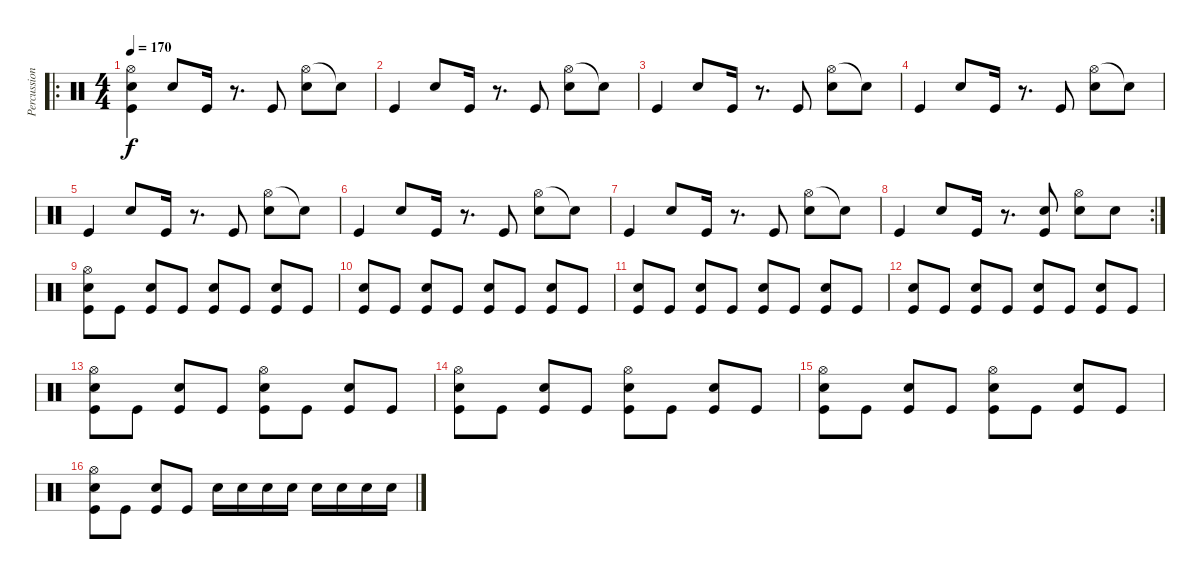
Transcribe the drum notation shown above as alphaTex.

\track ("Percussions" "Percussion") {instrument percussion}
\staff {score}
\articulation defaults
\ro
\ts (4 4)
\tempo 170
\clef neutral
\ks c
("Hi-Hat (open)" "Snare (hit) 2" "Kick (hit)").4{dy f} "Electric Snare (hit)".8 "Kick (hit)".16 r.8{d} "Kick (hit)".8 ("Hi-Hat (open)" "Electric Snare (hit)").8 "Snare (hit)"{t}.8 |
"Kick (hit)".4 "Electric Snare (hit)".8 "Kick (hit)".16 r.8{d} "Kick (hit)".8 ("Hi-Hat (open)" "Electric Snare (hit)").8 "Snare (hit)"{t}.8 |
"Kick (hit)".4 "Electric Snare (hit)".8 "Kick (hit)".16 r.8{d} "Kick (hit)".8 ("Hi-Hat (open)" "Electric Snare (hit)").8 "Snare (hit)"{t}.8 |
"Kick (hit)".4 "Electric Snare (hit)".8 "Kick (hit)".16 r.8{d} "Kick (hit)".8 ("Hi-Hat (open)" "Electric Snare (hit)").8 "Snare (hit)"{t}.8 |
"Kick (hit)".4 "Electric Snare (hit)".8 "Kick (hit)".16 r.8{d} "Kick (hit)".8 ("Hi-Hat (open)" "Electric Snare (hit)").8 "Snare (hit)"{t}.8 |
"Kick (hit)".4 "Electric Snare (hit)".8 "Kick (hit)".16 r.8{d} "Kick (hit)".8 ("Hi-Hat (open)" "Electric Snare (hit)").8 "Snare (hit)"{t}.8 |
"Kick (hit)".4 "Electric Snare (hit)".8 "Kick (hit)".16 r.8{d} "Kick (hit)".8 ("Hi-Hat (open)" "Electric Snare (hit)").8 "Snare (hit)"{t}.8 |
\rc 2 "Kick (hit)".4 "Electric Snare (hit)".8 "Kick (hit)".16
r.8{d} ("Snare (hit) 2" "Kick (hit)").8 ("Hi-Hat (open)" "Snare (hit) 2").8 "Snare (hit) 2".8 |
("Hi-Hat (open)" "Electric Snare (hit)" "Kick (hit)").8 "Kick (hit)".8 ("Electric Snare (hit)" "Kick (hit)").8 "Kick (hit)".8 ("Electric Snare (hit)" "Kick (hit)").8 "Kick (hit)".8 ("Electric Snare (hit)" "Kick (hit)").8 "Kick (hit)".8 |
("Electric Snare (hit)" "Kick (hit)").8 "Kick (hit)".8 ("Electric Snare (hit)" "Kick (hit)").8 "Kick (hit)".8 ("Electric Snare (hit)" "Kick (hit)").8 "Kick (hit)".8 ("Electric Snare (hit)" "Kick (hit)").8 "Kick (hit)".8 |
("Electric Snare (hit)" "Kick (hit)").8 "Kick (hit)".8 ("Electric Snare (hit)" "Kick (hit)").8 "Kick (hit)".8 ("Electric Snare (hit)" "Kick (hit)").8 "Kick (hit)".8 ("Electric Snare (hit)" "Kick (hit)").8 "Kick (hit)".8 |
("Electric Snare (hit)" "Kick (hit)").8 "Kick (hit)".8 ("Electric Snare (hit)" "Kick (hit)").8 "Kick (hit)".8 ("Electric Snare (hit)" "Kick (hit)").8 "Kick (hit)".8 ("Electric Snare (hit)" "Kick (hit)").8 "Kick (hit)".8 |
("Hi-Hat (open)" "Electric Snare (hit)" "Kick (hit)").8 "Kick (hit)".8 ("Electric Snare (hit)" "Kick (hit)").8 "Kick (hit)".8 ("Hi-Hat (open)" "Electric Snare (hit)" "Kick (hit)").8 "Kick (hit)".8 ("Electric Snare (hit)" "Kick (hit)").8 "Kick (hit)".8 |
("Hi-Hat (open)" "Electric Snare (hit)" "Kick (hit)").8 "Kick (hit)".8 ("Electric Snare (hit)" "Kick (hit)").8 "Kick (hit)".8 ("Hi-Hat (open)" "Electric Snare (hit)" "Kick (hit)").8 "Kick (hit)".8 ("Electric Snare (hit)" "Kick (hit)").8 "Kick (hit)".8 |
("Hi-Hat (open)" "Electric Snare (hit)" "Kick (hit)").8 "Kick (hit)".8 ("Electric Snare (hit)" "Kick (hit)").8 "Kick (hit)".8 ("Hi-Hat (open)" "Electric Snare (hit)" "Kick (hit)").8 "Kick (hit)".8 ("Electric Snare (hit)" "Kick (hit)").8 "Kick (hit)".8 |
("Hi-Hat (open)" "Electric Snare (hit)" "Kick (hit)").8 "Kick (hit)".8 ("Electric Snare (hit)" "Kick (hit)").8 "Kick (hit)".8 "Snare (hit) 2".16 "Snare (hit) 2".16 "Snare (hit) 2".16 "Snare (hit) 2".16 "Electric Snare (hit)".16 "Electric Snare (hit)".16 "Electric Snare (hit)".16 "Electric Snare (hit)".16
